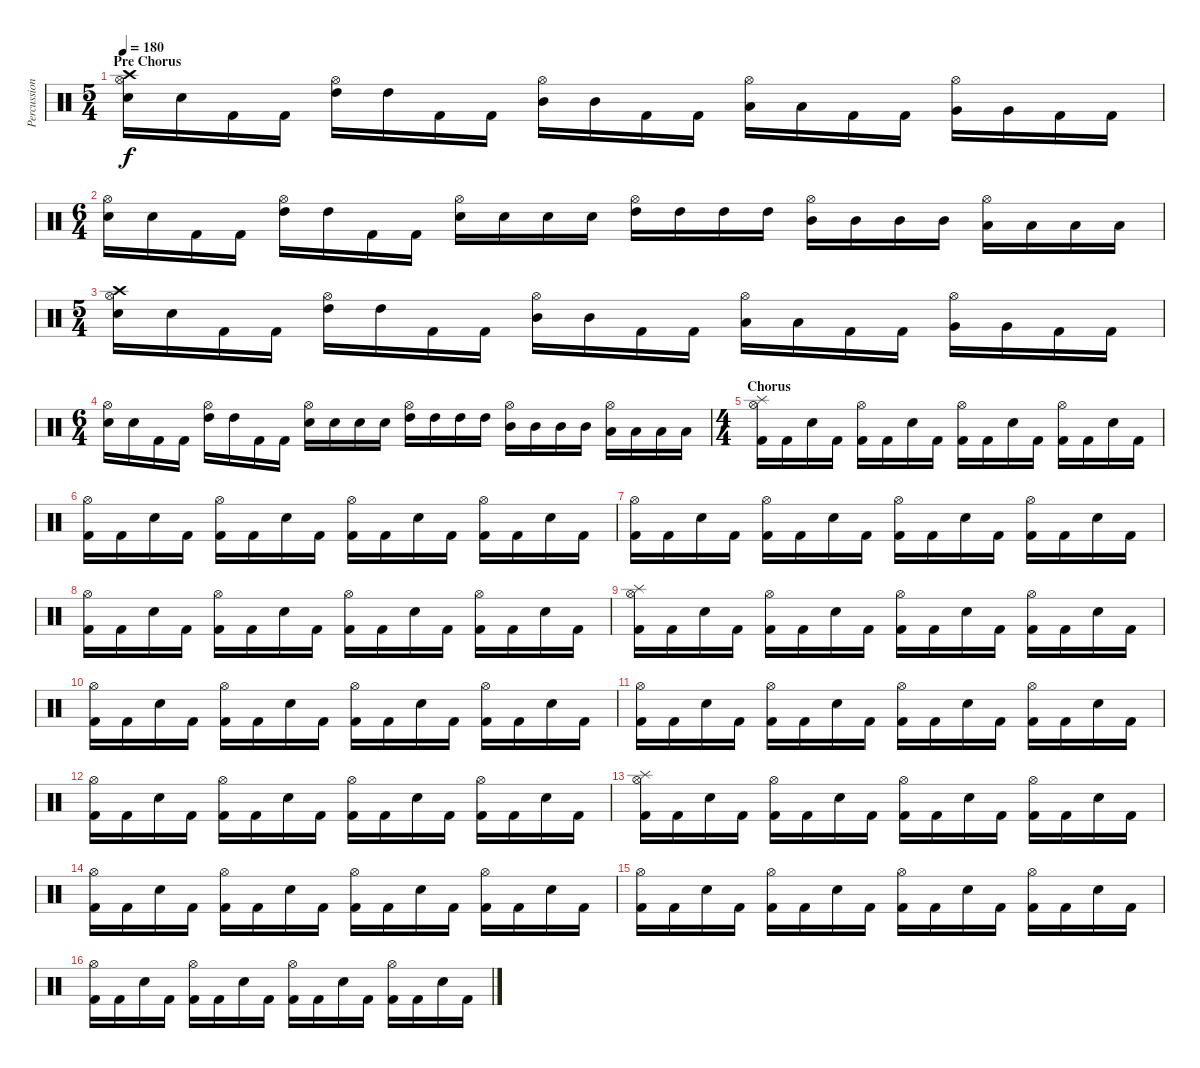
\track ("Percussions" "Percussion") {instrument percussion}
\staff {score}
\articulation defaults
\ts (5 4)
\section ("" "Pre Chorus")
\tempo 180
\clef neutral
\ks c
("Crash high (hit)" "Hi-Hat (open)" "Electric Snare (hit)").16{dy f} "Electric Snare (hit)".16 "Kick (hit) 2".16 "Kick (hit) 2".16 ("Hi-Hat (open)" "High Tom (hit)").16 "High Tom (hit)".16 "Kick (hit) 2".16 "Kick (hit) 2".16 ("Hi-Hat (open)" "Mid Tom (hit)").16 "Mid Tom (hit)".16 "Kick (hit) 2".16 "Kick (hit) 2".16 ("Hi-Hat (open)" "Low Tom (hit)").16 "Low Tom (hit)".16 "Kick (hit) 2".16 "Kick (hit) 2".16 ("Hi-Hat (open)" "Very Low Tom (hit)").16 "Very Low Tom (hit)".16 "Kick (hit) 2".16 "Kick (hit) 2".16 |
\ts (6 4)
("Hi-Hat (open)" "Electric Snare (hit)").16 "Electric Snare (hit)".16 "Kick (hit) 2".16 "Kick (hit) 2".16 ("Hi-Hat (open)" "High Tom (hit)").16 "High Tom (hit)".16 "Kick (hit) 2".16 "Kick (hit) 2".16 ("Hi-Hat (open)" "Electric Snare (hit)").16 "Electric Snare (hit)".16 "Electric Snare (hit)".16 "Electric Snare (hit)".16 ("Hi-Hat (open)" "High Tom (hit)").16 "High Tom (hit)".16 "High Tom (hit)".16 "High Tom (hit)".16 ("Hi-Hat (open)" "Mid Tom (hit)").16 "Mid Tom (hit)".16 "Mid Tom (hit)".16 "Mid Tom (hit)".16 ("Hi-Hat (open)" "Low Tom (hit)").16 "Low Tom (hit)".16 "Low Tom (hit)".16 "Low Tom (hit)".16 |
\ts (5 4)
("Crash high (hit)" "Hi-Hat (open)" "Electric Snare (hit)").16 "Electric Snare (hit)".16 "Kick (hit) 2".16 "Kick (hit) 2".16 ("Hi-Hat (open)" "High Tom (hit)").16 "High Tom (hit)".16 "Kick (hit) 2".16 "Kick (hit) 2".16 ("Hi-Hat (open)" "Mid Tom (hit)").16 "Mid Tom (hit)".16 "Kick (hit) 2".16 "Kick (hit) 2".16 ("Hi-Hat (open)" "Low Tom (hit)").16 "Low Tom (hit)".16 "Kick (hit) 2".16 "Kick (hit) 2".16 ("Hi-Hat (open)" "Very Low Tom (hit)").16 "Very Low Tom (hit)".16 "Kick (hit) 2".16 "Kick (hit) 2".16 |
\ts (6 4)
("Hi-Hat (open)" "Electric Snare (hit)").16 "Electric Snare (hit)".16 "Kick (hit) 2".16 "Kick (hit) 2".16 ("Hi-Hat (open)" "High Tom (hit)").16 "High Tom (hit)".16 "Kick (hit) 2".16 "Kick (hit) 2".16 ("Hi-Hat (open)" "Electric Snare (hit)").16 "Electric Snare (hit)".16 "Electric Snare (hit)".16 "Electric Snare (hit)".16 ("Hi-Hat (open)" "High Tom (hit)").16 "High Tom (hit)".16 "High Tom (hit)".16 "High Tom (hit)".16 ("Hi-Hat (open)" "Mid Tom (hit)").16 "Mid Tom (hit)".16 "Mid Tom (hit)".16 "Mid Tom (hit)".16 ("Hi-Hat (open)" "Low Tom (hit)").16 "Low Tom (hit)".16 "Low Tom (hit)".16 "Low Tom (hit)".16 |
\ts (4 4)
\section ("" "Chorus")
("Splash (hit)" "Hi-Hat (open)" "Kick (hit) 2").16 "Kick (hit) 2".16 "Electric Snare (hit)".16 "Kick (hit) 2".16 ("Hi-Hat (open)" "Kick (hit) 2").16 "Kick (hit) 2".16 "Electric Snare (hit)".16 "Kick (hit) 2".16 ("Hi-Hat (open)" "Kick (hit) 2").16 "Kick (hit) 2".16 "Electric Snare (hit)".16 "Kick (hit) 2".16 ("Hi-Hat (open)" "Kick (hit) 2").16 "Kick (hit) 2".16 "Electric Snare (hit)".16 "Kick (hit) 2".16 |
("Hi-Hat (open)" "Kick (hit) 2").16 "Kick (hit) 2".16 "Electric Snare (hit)".16 "Kick (hit) 2".16 ("Hi-Hat (open)" "Kick (hit) 2").16 "Kick (hit) 2".16 "Electric Snare (hit)".16 "Kick (hit) 2".16 ("Hi-Hat (open)" "Kick (hit) 2").16 "Kick (hit) 2".16 "Electric Snare (hit)".16 "Kick (hit) 2".16 ("Hi-Hat (open)" "Kick (hit) 2").16 "Kick (hit) 2".16 "Electric Snare (hit)".16 "Kick (hit) 2".16 |
("Hi-Hat (open)" "Kick (hit) 2").16 "Kick (hit) 2".16 "Electric Snare (hit)".16 "Kick (hit) 2".16 ("Hi-Hat (open)" "Kick (hit) 2").16 "Kick (hit) 2".16 "Electric Snare (hit)".16 "Kick (hit) 2".16 ("Hi-Hat (open)" "Kick (hit) 2").16 "Kick (hit) 2".16 "Electric Snare (hit)".16 "Kick (hit) 2".16 ("Hi-Hat (open)" "Kick (hit) 2").16 "Kick (hit) 2".16 "Electric Snare (hit)".16 "Kick (hit) 2".16 |
("Hi-Hat (open)" "Kick (hit) 2").16 "Kick (hit) 2".16 "Electric Snare (hit)".16 "Kick (hit) 2".16 ("Hi-Hat (open)" "Kick (hit) 2").16 "Kick (hit) 2".16 "Electric Snare (hit)".16 "Kick (hit) 2".16 ("Hi-Hat (open)" "Kick (hit) 2").16 "Kick (hit) 2".16 "Electric Snare (hit)".16 "Kick (hit) 2".16 ("Hi-Hat (open)" "Kick (hit) 2").16 "Kick (hit) 2".16 "Electric Snare (hit)".16 "Kick (hit) 2".16 |
("Splash (hit)" "Hi-Hat (open)" "Kick (hit) 2").16 "Kick (hit) 2".16 "Electric Snare (hit)".16 "Kick (hit) 2".16 ("Hi-Hat (open)" "Kick (hit) 2").16 "Kick (hit) 2".16 "Electric Snare (hit)".16 "Kick (hit) 2".16 ("Hi-Hat (open)" "Kick (hit) 2").16 "Kick (hit) 2".16 "Electric Snare (hit)".16 "Kick (hit) 2".16 ("Hi-Hat (open)" "Kick (hit) 2").16 "Kick (hit) 2".16 "Electric Snare (hit)".16 "Kick (hit) 2".16 |
("Hi-Hat (open)" "Kick (hit) 2").16 "Kick (hit) 2".16 "Electric Snare (hit)".16 "Kick (hit) 2".16 ("Hi-Hat (open)" "Kick (hit) 2").16 "Kick (hit) 2".16 "Electric Snare (hit)".16 "Kick (hit) 2".16 ("Hi-Hat (open)" "Kick (hit) 2").16 "Kick (hit) 2".16 "Electric Snare (hit)".16 "Kick (hit) 2".16 ("Hi-Hat (open)" "Kick (hit) 2").16 "Kick (hit) 2".16 "Electric Snare (hit)".16 "Kick (hit) 2".16 |
("Hi-Hat (open)" "Kick (hit) 2").16 "Kick (hit) 2".16 "Electric Snare (hit)".16 "Kick (hit) 2".16 ("Hi-Hat (open)" "Kick (hit) 2").16 "Kick (hit) 2".16 "Electric Snare (hit)".16 "Kick (hit) 2".16 ("Hi-Hat (open)" "Kick (hit) 2").16 "Kick (hit) 2".16 "Electric Snare (hit)".16 "Kick (hit) 2".16 ("Hi-Hat (open)" "Kick (hit) 2").16 "Kick (hit) 2".16 "Electric Snare (hit)".16 "Kick (hit) 2".16 |
("Hi-Hat (open)" "Kick (hit) 2").16 "Kick (hit) 2".16 "Electric Snare (hit)".16 "Kick (hit) 2".16 ("Hi-Hat (open)" "Kick (hit) 2").16 "Kick (hit) 2".16 "Electric Snare (hit)".16 "Kick (hit) 2".16 ("Hi-Hat (open)" "Kick (hit) 2").16 "Kick (hit) 2".16 "Electric Snare (hit)".16 "Kick (hit) 2".16 ("Hi-Hat (open)" "Kick (hit) 2").16 "Kick (hit) 2".16 "Electric Snare (hit)".16 "Kick (hit) 2".16 |
("Splash (hit)" "Hi-Hat (open)" "Kick (hit) 2").16 "Kick (hit) 2".16 "Electric Snare (hit)".16 "Kick (hit) 2".16 ("Hi-Hat (open)" "Kick (hit) 2").16 "Kick (hit) 2".16 "Electric Snare (hit)".16 "Kick (hit) 2".16 ("Hi-Hat (open)" "Kick (hit) 2").16 "Kick (hit) 2".16 "Electric Snare (hit)".16 "Kick (hit) 2".16 ("Hi-Hat (open)" "Kick (hit) 2").16 "Kick (hit) 2".16 "Electric Snare (hit)".16 "Kick (hit) 2".16 |
("Hi-Hat (open)" "Kick (hit) 2").16 "Kick (hit) 2".16 "Electric Snare (hit)".16 "Kick (hit) 2".16 ("Hi-Hat (open)" "Kick (hit) 2").16 "Kick (hit) 2".16 "Electric Snare (hit)".16 "Kick (hit) 2".16 ("Hi-Hat (open)" "Kick (hit) 2").16 "Kick (hit) 2".16 "Electric Snare (hit)".16 "Kick (hit) 2".16 ("Hi-Hat (open)" "Kick (hit) 2").16 "Kick (hit) 2".16 "Electric Snare (hit)".16 "Kick (hit) 2".16 |
("Hi-Hat (open)" "Kick (hit) 2").16 "Kick (hit) 2".16 "Electric Snare (hit)".16 "Kick (hit) 2".16 ("Hi-Hat (open)" "Kick (hit) 2").16 "Kick (hit) 2".16 "Electric Snare (hit)".16 "Kick (hit) 2".16 ("Hi-Hat (open)" "Kick (hit) 2").16 "Kick (hit) 2".16 "Electric Snare (hit)".16 "Kick (hit) 2".16 ("Hi-Hat (open)" "Kick (hit) 2").16 "Kick (hit) 2".16 "Electric Snare (hit)".16 "Kick (hit) 2".16 |
("Hi-Hat (open)" "Kick (hit) 2").16 "Kick (hit) 2".16 "Electric Snare (hit)".16 "Kick (hit) 2".16 ("Hi-Hat (open)" "Kick (hit) 2").16 "Kick (hit) 2".16 "Electric Snare (hit)".16 "Kick (hit) 2".16 ("Hi-Hat (open)" "Kick (hit) 2").16 "Kick (hit) 2".16 "Electric Snare (hit)".16 "Kick (hit) 2".16 ("Hi-Hat (open)" "Kick (hit) 2").16 "Kick (hit) 2".16 "Electric Snare (hit)".16 "Kick (hit) 2".16
